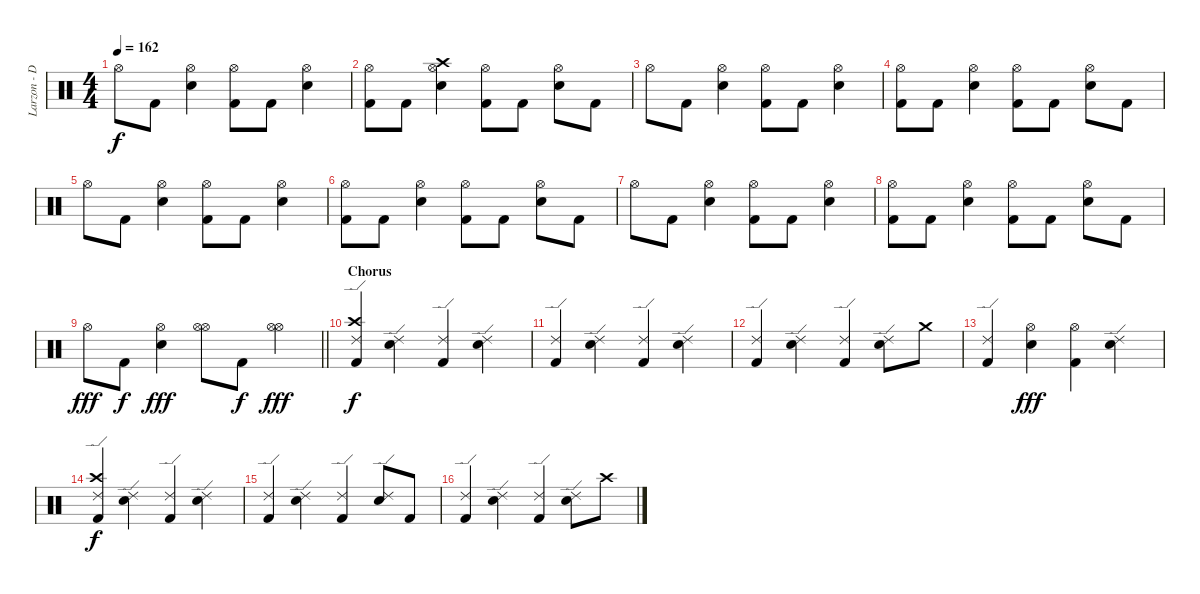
\track ("Larzon - Drums" "Larzon - D") {instrument percussion}
\staff {score}
\articulation defaults
\ts (4 4)
\tempo 162
\clef neutral
\ks c "Hi-Hat (open)".8{dy f} "Kick (hit) 2".8
("Electric Snare (hit)" "Hi-Hat (open)").4 ("Kick (hit) 2" "Hi-Hat (open)").8 "Kick (hit) 2".8 ("Electric Snare (hit)" "Hi-Hat (open)").4 |
("Kick (hit) 2" "Hi-Hat (open)").8 "Kick (hit) 2".8 ("Electric Snare (hit)" "Crash high (hit)" "Hi-Hat (open)").4 ("Kick (hit) 2" "Hi-Hat (open)").8 "Kick (hit) 2".8 ("Electric Snare (hit)" "Hi-Hat (open)").8 "Kick (hit) 2".8 |
"Hi-Hat (open)".8 "Kick (hit) 2".8 ("Electric Snare (hit)" "Hi-Hat (open)").4 ("Kick (hit) 2" "Hi-Hat (open)").8 "Kick (hit) 2".8 ("Electric Snare (hit)" "Hi-Hat (open)").4 |
("Kick (hit) 2" "Hi-Hat (open)").8 "Kick (hit) 2".8 ("Electric Snare (hit)" "Hi-Hat (open)").4 ("Kick (hit) 2" "Hi-Hat (open)").8 "Kick (hit) 2".8 ("Electric Snare (hit)" "Hi-Hat (open)").8 "Kick (hit) 2".8 |
"Hi-Hat (open)".8 "Kick (hit) 2".8 ("Electric Snare (hit)" "Hi-Hat (open)").4 ("Kick (hit) 2" "Hi-Hat (open)").8 "Kick (hit) 2".8 ("Electric Snare (hit)" "Hi-Hat (open)").4 |
("Kick (hit) 2" "Hi-Hat (open)").8 "Kick (hit) 2".8 ("Electric Snare (hit)" "Hi-Hat (open)").4 ("Kick (hit) 2" "Hi-Hat (open)").8 "Kick (hit) 2".8 ("Electric Snare (hit)" "Hi-Hat (open)").8 "Kick (hit) 2".8 |
"Hi-Hat (open)".8 "Kick (hit) 2".8 ("Electric Snare (hit)" "Hi-Hat (open)").4 ("Kick (hit) 2" "Hi-Hat (open)").8 "Kick (hit) 2".8 ("Electric Snare (hit)" "Hi-Hat (open)").4 |
("Kick (hit) 2" "Hi-Hat (open)").8 "Kick (hit) 2".8 ("Electric Snare (hit)" "Hi-Hat (open)").4 ("Kick (hit) 2" "Hi-Hat (open)").8 "Kick (hit) 2".8 ("Electric Snare (hit)" "Hi-Hat (open)").8 "Kick (hit) 2".8 |
\barLineRight lightlight "Hi-Hat (open)".8{dy fff} "Kick (hit) 2".8{dy f}
("Electric Snare (hit)" "Hi-Hat (open)").4{dy fff} ("Hi-Hat (open)" "Hi-Hat (open)").8 "Kick (hit) 2".8{dy f} ("Hi-Hat (open)" "Hi-Hat (open)").4{dy fff} |
\section ("" "Chorus")
("Kick (hit) 2" "Ride (edge) 2" "Crash high (hit)").4{dy f} ("Electric Snare (hit)" "Ride (edge) 2").4 ("Kick (hit) 2" "Ride (edge) 2").4 ("Electric Snare (hit)" "Ride (edge) 2").4 |
("Kick (hit) 2" "Ride (edge) 2").4 ("Electric Snare (hit)" "Ride (edge) 2").4 ("Kick (hit) 2" "Ride (edge) 2").4 ("Electric Snare (hit)" "Ride (edge) 2").4 |
("Kick (hit) 2" "Ride (edge) 2").4 ("Electric Snare (hit)" "Ride (edge) 2").4 ("Kick (hit) 2" "Ride (edge) 2").4 ("Electric Snare (hit)" "Ride (edge) 2").8 "Crash medium (hit)".8 |
("Kick (hit) 2" "Ride (edge) 2").4 ("Electric Snare (hit)" "Hi-Hat (open)").4{dy fff} ("Kick (hit) 2" "Hi-Hat (open)").4 ("Electric Snare (hit)" "Ride (edge) 2").4 |
("Kick (hit) 2" "Ride (edge) 2" "Crash high (hit)").4{dy f} ("Electric Snare (hit)" "Ride (edge) 2").4 ("Kick (hit) 2" "Ride (edge) 2").4 ("Electric Snare (hit)" "Ride (edge) 2").4 |
("Kick (hit) 2" "Ride (edge) 2").4 ("Electric Snare (hit)" "Ride (edge) 2").4 ("Kick (hit) 2" "Ride (edge) 2").4 ("Electric Snare (hit)" "Ride (edge) 2").8 "Kick (hit) 2".8 |
("Kick (hit) 2" "Ride (edge) 2").4 ("Electric Snare (hit)" "Ride (edge) 2").4 ("Kick (hit) 2" "Ride (edge) 2").4 ("Electric Snare (hit)" "Ride (edge) 2").8 "Crash high (hit)".8
